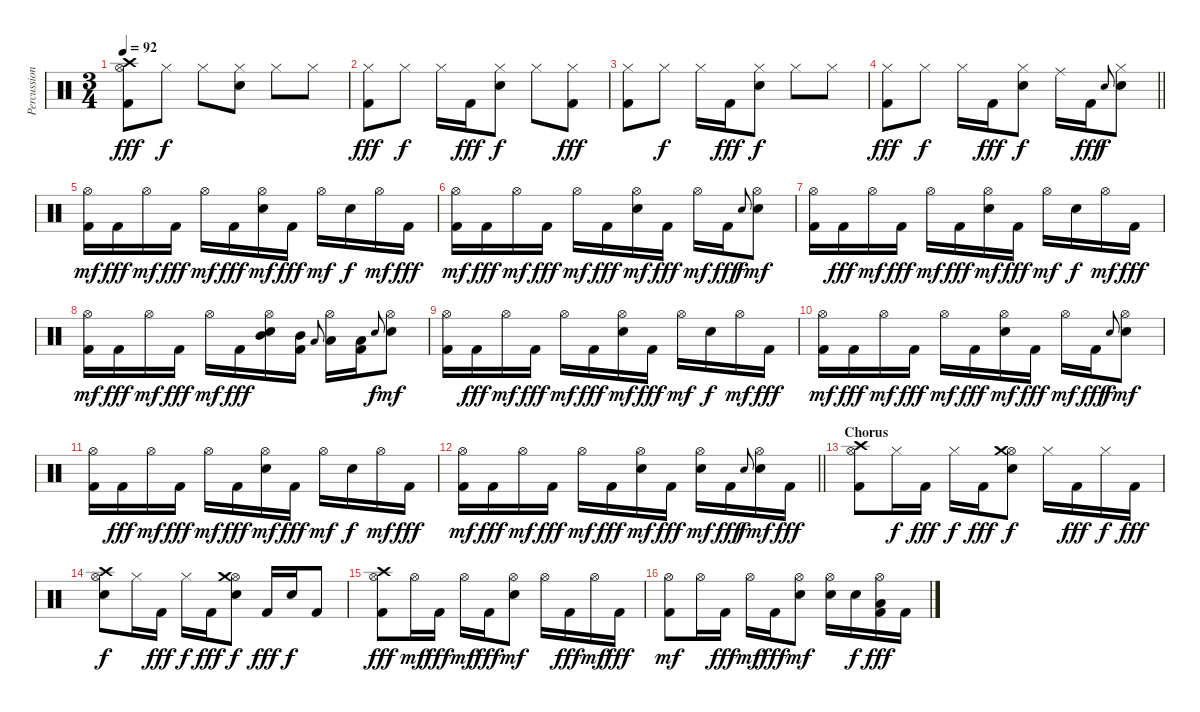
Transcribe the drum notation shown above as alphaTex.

\track ("Percussion" "Percussion") {instrument percussion}
\staff {score}
\articulation defaults
\ts (3 4)
\tempo 92
\clef neutral
\ks c
("Kick (hit) 2" "Hi-Hat (open)" "Crash high (hit)").8{dy fff} "Hi-Hat (closed)".8{dy f} "Hi-Hat (closed)".8 ("Electric Snare (hit)" "Hi-Hat (closed)").8 "Hi-Hat (closed)".8 "Hi-Hat (closed)".8 |
("Kick (hit) 2" "Hi-Hat (closed)").8{dy fff} "Hi-Hat (closed)".8{dy f} "Hi-Hat (closed)".16 "Kick (hit) 2".16{dy fff} ("Electric Snare (hit)" "Hi-Hat (closed)").8{dy f} "Hi-Hat (closed)".8 ("Kick (hit) 2" "Hi-Hat (closed)").8{dy fff} |
("Kick (hit) 2" "Hi-Hat (closed)").8 "Hi-Hat (closed)".8{dy f} "Hi-Hat (closed)".16 "Kick (hit) 2".16{dy fff} ("Electric Snare (hit)" "Hi-Hat (closed)").8{dy f} "Hi-Hat (closed)".8 "Hi-Hat (closed)".8 |
\barLineRight lightlight
("Kick (hit) 2" "Hi-Hat (closed)").8{dy fff} "Hi-Hat (closed)".8{dy f} "Hi-Hat (closed)".16 "Kick (hit) 2".16{dy fff} ("Electric Snare (hit)" "Hi-Hat (closed)").8{dy f} "Ride (middle)".16 "Kick (hit) 2".16{dy fff} "Electric Snare (hit)".8{gr onbeat dy f} ("Electric Snare (hit)" "Hi-Hat (closed)").8 |
("Kick (hit) 2" "Hi-Hat (open)").16{dy mf} "Kick (hit) 2".16{dy fff} "Hi-Hat (open)".16{dy mf} "Kick (hit) 2".16{dy fff} "Hi-Hat (open)".16{dy mf} "Kick (hit) 2".16{dy fff} ("Electric Snare (hit)" "Hi-Hat (open)").16{dy mf} "Kick (hit) 2".16{dy fff} "Hi-Hat (open)".16{dy mf} "Electric Snare (hit)".16{dy f} "Hi-Hat (open)".16{dy mf} "Kick (hit) 2".16{dy fff} |
("Kick (hit) 2" "Hi-Hat (open)").16{dy mf} "Kick (hit) 2".16{dy fff} "Hi-Hat (open)".16{dy mf} "Kick (hit) 2".16{dy fff} "Hi-Hat (open)".16{dy mf} "Kick (hit) 2".16{dy fff} ("Electric Snare (hit)" "Hi-Hat (open)").16{dy mf} "Kick (hit) 2".16{dy fff} "Hi-Hat (open)".16{dy mf} "Kick (hit) 2".16{dy fff} "Electric Snare (hit)".8{gr onbeat dy f} ("Electric Snare (hit)" "Hi-Hat (open)").8{dy mf} |
("Kick (hit) 2" "Hi-Hat (open)").16 "Kick (hit) 2".16{dy fff} "Hi-Hat (open)".16{dy mf} "Kick (hit) 2".16{dy fff} "Hi-Hat (open)".16{dy mf} "Kick (hit) 2".16{dy fff} ("Electric Snare (hit)" "Hi-Hat (open)").16{dy mf} "Kick (hit) 2".16{dy fff} "Hi-Hat (open)".16{dy mf} "Electric Snare (hit)".16{dy f} "Hi-Hat (open)".16{dy mf} "Kick (hit) 2".16{dy fff} |
("Kick (hit) 2" "Hi-Hat (open)").16{dy mf} "Kick (hit) 2".16{dy fff} "Hi-Hat (open)".16{dy mf} "Kick (hit) 2".16{dy fff} "Hi-Hat (open)".16{dy mf} "Kick (hit) 2".16{dy fff} ("Electric Snare (hit)" "Hi-Hat (open)" "Mid Tom (hit)").16 ("Kick (hit) 2" "Mid Tom (hit)").16 "Low Tom (hit)".8{gr onbeat} ("Hi-Hat (open)" "Low Tom (hit)").16 ("Kick (hit) 2" "Low Tom (hit)").16 "Electric Snare (hit)".8{gr onbeat dy f} ("Electric Snare (hit)" "Hi-Hat (open)").8{dy mf} |
("Kick (hit) 2" "Hi-Hat (open)").16 "Kick (hit) 2".16{dy fff} "Hi-Hat (open)".16{dy mf} "Kick (hit) 2".16{dy fff} "Hi-Hat (open)".16{dy mf} "Kick (hit) 2".16{dy fff} ("Electric Snare (hit)" "Hi-Hat (open)").16{dy mf} "Kick (hit) 2".16{dy fff} "Hi-Hat (open)".16{dy mf} "Electric Snare (hit)".16{dy f} "Hi-Hat (open)".16{dy mf} "Kick (hit) 2".16{dy fff} |
("Kick (hit) 2" "Hi-Hat (open)").16{dy mf} "Kick (hit) 2".16{dy fff} "Hi-Hat (open)".16{dy mf} "Kick (hit) 2".16{dy fff} "Hi-Hat (open)".16{dy mf} "Kick (hit) 2".16{dy fff} ("Electric Snare (hit)" "Hi-Hat (open)").16{dy mf} "Kick (hit) 2".16{dy fff} "Hi-Hat (open)".16{dy mf} "Kick (hit) 2".16{dy fff} "Electric Snare (hit)".8{gr onbeat dy f} ("Electric Snare (hit)" "Hi-Hat (open)").8{dy mf} |
("Kick (hit) 2" "Hi-Hat (open)").16 "Kick (hit) 2".16{dy fff} "Hi-Hat (open)".16{dy mf} "Kick (hit) 2".16{dy fff} "Hi-Hat (open)".16{dy mf} "Kick (hit) 2".16{dy fff} ("Electric Snare (hit)" "Hi-Hat (open)").16{dy mf} "Kick (hit) 2".16{dy fff} "Hi-Hat (open)".16{dy mf} "Electric Snare (hit)".16{dy f} "Hi-Hat (open)".16{dy mf} "Kick (hit) 2".16{dy fff} |
\barLineRight lightlight
("Kick (hit) 2" "Hi-Hat (open)").16{dy mf} "Kick (hit) 2".16{dy fff} "Hi-Hat (open)".16{dy mf} "Kick (hit) 2".16{dy fff} "Hi-Hat (open)".16{dy mf} "Kick (hit) 2".16{dy fff} ("Electric Snare (hit)" "Hi-Hat (open)").16{dy mf} "Kick (hit) 2".16{dy fff} ("Electric Snare (hit)" "Hi-Hat (open)").16{dy mf} "Kick (hit) 2".16{dy fff} "Electric Snare (hit)".8{gr onbeat dy f} ("Electric Snare (hit)" "Hi-Hat (open)").16{dy mf} "Kick (hit) 2".16{dy fff} |
\section ("" "Chorus")
("Kick (hit) 2" "Hi-Hat (open)" "Crash high (hit)").8 "Hi-Hat (closed)".16{dy f} "Kick (hit) 2".16{dy fff} "Hi-Hat (closed)".16{dy f} "Kick (hit) 2".16{dy fff} ("Electric Snare (hit)" "Hi-Hat (open)" "Crash medium (hit)").8{dy f} "Hi-Hat (closed)".16 "Kick (hit) 2".16{dy fff} "Hi-Hat (closed)".16{dy f} "Kick (hit) 2".16{dy fff} |
("Electric Snare (hit)" "Hi-Hat (open)" "Crash high (hit)").8{dy f} "Hi-Hat (closed)".16 "Kick (hit) 2".16{dy fff} "Hi-Hat (closed)".16{dy f} "Kick (hit) 2".16{dy fff} ("Electric Snare (hit)" "Hi-Hat (open)" "Crash medium (hit)").8{dy f} "Kick (hit) 2".16{dy fff} "Electric Snare (hit)".16{dy f} "Kick (hit) 2".8 |
("Kick (hit) 2" "Hi-Hat (open)" "Crash high (hit)").8{dy fff} "Hi-Hat (open)".16{dy mf} "Kick (hit) 2".16{dy fff} "Hi-Hat (open)".16{dy mf} "Kick (hit) 2".16{dy fff} ("Electric Snare (hit)" "Hi-Hat (open)").8{dy mf} "Hi-Hat (open)".16 "Kick (hit) 2".16{dy fff} "Hi-Hat (open)".16{dy mf} "Kick (hit) 2".16{dy fff} |
("Kick (hit) 2" "Hi-Hat (open)").8{dy mf} "Hi-Hat (open)".16 "Kick (hit) 2".16{dy fff} "Hi-Hat (open)".16{dy mf} "Kick (hit) 2".16{dy fff} ("Electric Snare (hit)" "Hi-Hat (open)").8{dy mf} ("Electric Snare (hit)" "Hi-Hat (open)").16 "Electric Snare (hit)".16{dy f} ("Kick (hit) 2" "Hi-Hat (open)" "Low Tom (hit)").16{dy fff} "Kick (hit) 2".16
